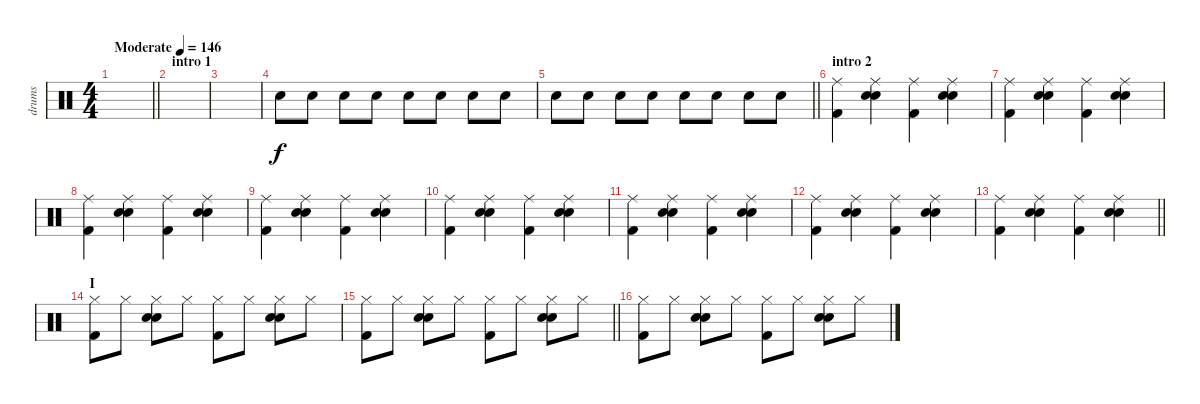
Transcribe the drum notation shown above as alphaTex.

\track ("drums " "drums ") {instrument percussion}
\staff {score}
\articulation defaults
\ts (4 4)
\tempo (146 "Moderate")
\clef neutral
\barLineRight lightlight
\ks c
|
\section ("" "intro 1")
|
|
"Snare (hit) 2".8 "Snare (hit) 2".8 "Snare (hit) 2".8 "Snare (hit) 2".8 "Snare (hit) 2".8 "Snare (hit) 2".8 "Snare (hit) 2".8 "Snare (hit) 2".8 |
\barLineRight lightlight "Snare (hit) 2".8 "Snare (hit) 2".8 "Snare (hit) 2".8 "Snare (hit) 2".8 "Snare (hit) 2".8 "Snare (hit) 2".8 "Snare (hit) 2".8 "Snare (hit) 2".8
|
\section ("" "intro 2")
("Kick (hit) 2" "Ride (middle)").4 ("Electric Snare (hit)" "Snare (hit) 2" "Ride (middle)").4 ("Kick (hit) 2" "Ride (middle)").4 ("Electric Snare (hit)" "Snare (hit) 2" "Ride (middle)").4 |
("Kick (hit) 2" "Ride (middle)").4 ("Electric Snare (hit)" "Snare (hit) 2" "Ride (middle)").4 ("Kick (hit) 2" "Ride (middle)").4 ("Electric Snare (hit)" "Snare (hit) 2" "Ride (middle)").4 |
("Kick (hit) 2" "Ride (middle)").4 ("Electric Snare (hit)" "Snare (hit) 2" "Ride (middle)").4 ("Kick (hit) 2" "Ride (middle)").4 ("Electric Snare (hit)" "Snare (hit) 2" "Ride (middle)").4 |
("Kick (hit) 2" "Ride (middle)").4 ("Electric Snare (hit)" "Snare (hit) 2" "Ride (middle)").4 ("Kick (hit) 2" "Ride (middle)").4 ("Electric Snare (hit)" "Snare (hit) 2" "Ride (middle)").4 |
("Kick (hit) 2" "Ride (middle)").4 ("Electric Snare (hit)" "Snare (hit) 2" "Ride (middle)").4 ("Kick (hit) 2" "Ride (middle)").4 ("Electric Snare (hit)" "Snare (hit) 2" "Ride (middle)").4 |
("Kick (hit) 2" "Ride (middle)").4 ("Electric Snare (hit)" "Snare (hit) 2" "Ride (middle)").4 ("Kick (hit) 2" "Ride (middle)").4 ("Electric Snare (hit)" "Snare (hit) 2" "Ride (middle)").4 |
("Kick (hit) 2" "Ride (middle)").4 ("Electric Snare (hit)" "Snare (hit) 2" "Ride (middle)").4 ("Kick (hit) 2" "Ride (middle)").4 ("Electric Snare (hit)" "Snare (hit) 2" "Ride (middle)").4 |
\barLineRight lightlight
("Kick (hit) 2" "Ride (middle)").4 ("Electric Snare (hit)" "Snare (hit) 2" "Ride (middle)").4 ("Kick (hit) 2" "Ride (middle)").4 ("Electric Snare (hit)" "Snare (hit) 2" "Ride (middle)").4 |
\section ("" "I ")
("Kick (hit) 2" "Hi-Hat (closed)").8 "Hi-Hat (closed)".8 ("Electric Snare (hit)" "Snare (hit) 2" "Hi-Hat (closed)").8 "Hi-Hat (closed)".8 ("Kick (hit) 2" "Hi-Hat (closed)").8 "Hi-Hat (closed)".8 ("Electric Snare (hit)" "Snare (hit) 2" "Hi-Hat (closed)").8 "Hi-Hat (closed)".8 |
\barLineRight lightlight
("Kick (hit) 2" "Hi-Hat (closed)").8 "Hi-Hat (closed)".8 ("Electric Snare (hit)" "Snare (hit) 2" "Hi-Hat (closed)").8 "Hi-Hat (closed)".8 ("Kick (hit) 2" "Hi-Hat (closed)").8 "Hi-Hat (closed)".8 ("Electric Snare (hit)" "Snare (hit) 2" "Hi-Hat (closed)").8 "Hi-Hat (closed)".8 |
("Kick (hit) 2" "Hi-Hat (closed)").8 "Hi-Hat (closed)".8 ("Electric Snare (hit)" "Snare (hit) 2" "Hi-Hat (closed)").8 "Hi-Hat (closed)".8 ("Kick (hit) 2" "Hi-Hat (closed)").8 "Hi-Hat (closed)".8 ("Electric Snare (hit)" "Snare (hit) 2" "Hi-Hat (closed)").8 "Hi-Hat (closed)".8
